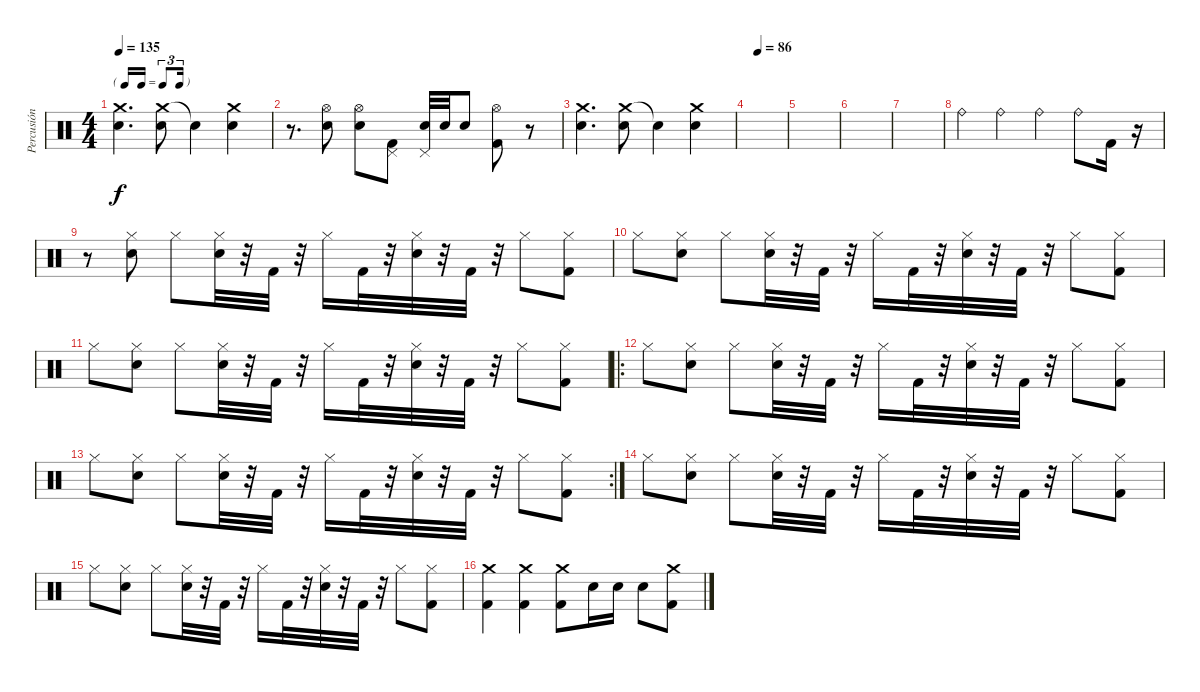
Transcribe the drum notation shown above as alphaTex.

\track ("Percusión" "Percusión") {instrument percussion}
\staff {score}
\articulation defaults
\ts (4 4)
\tf triplet16th
\tempo 135
\clef neutral
\ks c
("Crash medium (hit)" "Snare (hit) 2").4{d dy f} ("Crash medium (hit)" "Snare (hit) 2").8 "Snare (hit)"{t}.4 ("Crash medium (hit)" "Snare (hit) 2").4 |
r.8{d} ("Hi-Hat (open)" "Snare (hit) 2").8 ("Hi-Hat (open)" "Snare (hit) 2").8 ("Pedal Hi-Hat (hit)" "Kick (hit) 2").8 ("Pedal Hi-Hat (hit)" "Snare (hit) 2").32 "Snare (hit) 2".32 "Snare (hit) 2".8 ("Hi-Hat (open)" "Kick (hit) 2").8 r.8 |
("Crash medium (hit)" "Snare (hit) 2").4{d} ("Crash medium (hit)" "Snare (hit) 2").8 "Snare (hit)"{t}.4 ("Crash medium (hit)" "Snare (hit) 2").4 |
\tempo (86 0.25)
|
|
|
|
"Ride (bell)".4{volume 11} "Ride (bell)".4 "Ride (bell)".4 "Ride (bell)".8 "Kick (hit) 2".16 r.16 |
r.8 ("Hi-Hat (closed)" "Snare (hit) 2").8 "Hi-Hat (closed)".8 ("Hi-Hat (closed)" "Snare (hit) 2").32 r.32 "Kick (hit) 2".32 r.32 "Hi-Hat (closed)".16 "Kick (hit) 2".32 r.32 ("Hi-Hat (closed)" "Snare (hit) 2").32 r.32 "Kick (hit) 2".32 r.32 "Hi-Hat (closed)".8 ("Hi-Hat (closed)" "Kick (hit) 2").8 |
"Hi-Hat (closed)".8 ("Hi-Hat (closed)" "Snare (hit) 2").8 "Hi-Hat (closed)".8 ("Hi-Hat (closed)" "Snare (hit) 2").32 r.32 "Kick (hit) 2".32 r.32 "Hi-Hat (closed)".16 "Kick (hit) 2".32 r.32 ("Hi-Hat (closed)" "Snare (hit) 2").32 r.32 "Kick (hit) 2".32 r.32 "Hi-Hat (closed)".8 ("Hi-Hat (closed)" "Kick (hit) 2").8 |
"Hi-Hat (closed)".8 ("Hi-Hat (closed)" "Snare (hit) 2").8 "Hi-Hat (closed)".8 ("Hi-Hat (closed)" "Snare (hit) 2").32 r.32 "Kick (hit) 2".32 r.32 "Hi-Hat (closed)".16 "Kick (hit) 2".32 r.32 ("Hi-Hat (closed)" "Snare (hit) 2").32 r.32 "Kick (hit) 2".32 r.32 "Hi-Hat (closed)".8 ("Hi-Hat (closed)" "Kick (hit) 2").8 |
\ro "Hi-Hat (closed)".8
("Hi-Hat (closed)" "Snare (hit) 2").8 "Hi-Hat (closed)".8 ("Hi-Hat (closed)" "Snare (hit) 2").32 r.32 "Kick (hit) 2".32 r.32 "Hi-Hat (closed)".16 "Kick (hit) 2".32 r.32 ("Hi-Hat (closed)" "Snare (hit) 2").32 r.32 "Kick (hit) 2".32 r.32 "Hi-Hat (closed)".8 ("Hi-Hat (closed)" "Kick (hit) 2").8 |
\rc 2 "Hi-Hat (closed)".8
("Hi-Hat (closed)" "Snare (hit) 2").8 "Hi-Hat (closed)".8 ("Hi-Hat (closed)" "Snare (hit) 2").32 r.32 "Kick (hit) 2".32 r.32 "Hi-Hat (closed)".16 "Kick (hit) 2".32 r.32 ("Hi-Hat (closed)" "Snare (hit) 2").32 r.32 "Kick (hit) 2".32 r.32 "Hi-Hat (closed)".8 ("Hi-Hat (closed)" "Kick (hit) 2").8 |
"Hi-Hat (closed)".8 ("Hi-Hat (closed)" "Snare (hit) 2").8 "Hi-Hat (closed)".8 ("Hi-Hat (closed)" "Snare (hit) 2").32 r.32 "Kick (hit) 2".32 r.32 "Hi-Hat (closed)".16 "Kick (hit) 2".32 r.32 ("Hi-Hat (closed)" "Snare (hit) 2").32 r.32 "Kick (hit) 2".32 r.32 "Hi-Hat (closed)".8 ("Hi-Hat (closed)" "Kick (hit) 2").8 |
"Hi-Hat (closed)".8 ("Hi-Hat (closed)" "Snare (hit) 2").8 "Hi-Hat (closed)".8 ("Hi-Hat (closed)" "Snare (hit) 2").32 r.32 "Kick (hit) 2".32 r.32 "Hi-Hat (closed)".16 "Kick (hit) 2".32 r.32 ("Hi-Hat (closed)" "Snare (hit) 2").32 r.32 "Kick (hit) 2".32 r.32 "Hi-Hat (closed)".8 ("Hi-Hat (closed)" "Kick (hit) 2").8 |
("Crash medium (hit)" "Kick (hit) 2").4{volume 16} ("Crash medium (hit)" "Kick (hit) 2").4 ("Crash medium (hit)" "Kick (hit) 2").8 "Snare (hit) 2".16 "Snare (hit) 2".16 "Snare (hit) 2".8 ("Crash medium (hit)" "Kick (hit) 2").8
